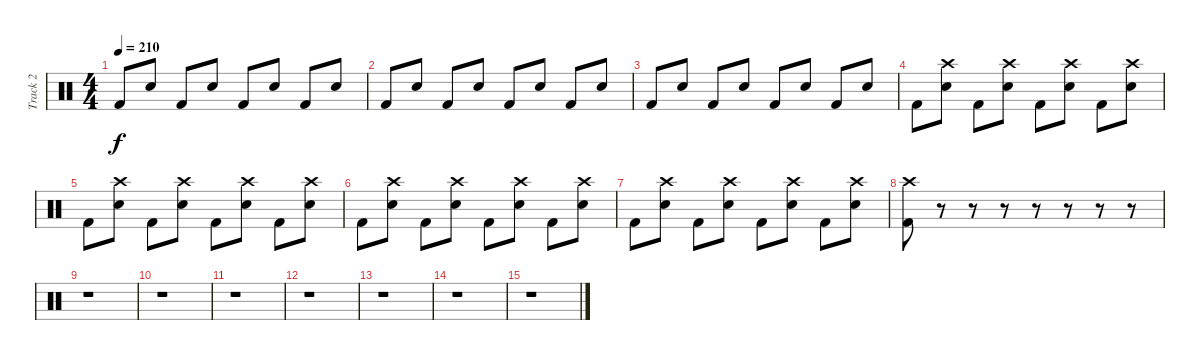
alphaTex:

\track ("Track 2" "Track 2") {instrument percussion}
\staff {score}
\articulation defaults
\ts (4 4)
\tempo 210
\clef neutral
\ks c "Kick (hit) 2".8{dy f} "Electric Snare (hit)".8 "Kick (hit) 2".8 "Electric Snare (hit)".8 "Kick (hit) 2".8 "Electric Snare (hit)".8 "Kick (hit) 2".8 "Electric Snare (hit)".8
|
"Kick (hit) 2".8 "Electric Snare (hit)".8 "Kick (hit) 2".8 "Electric Snare (hit)".8 "Kick (hit) 2".8 "Electric Snare (hit)".8 "Kick (hit) 2".8 "Electric Snare (hit)".8 |
"Kick (hit) 2".8 "Electric Snare (hit)".8 "Kick (hit) 2".8 "Electric Snare (hit)".8 "Kick (hit) 2".8 "Electric Snare (hit)".8 "Kick (hit) 2".8 "Electric Snare (hit)".8 |
"Kick (hit) 2".8 ("Crash high (hit)" "Electric Snare (hit)").8 "Kick (hit) 2".8 ("Crash high (hit)" "Electric Snare (hit)").8 "Kick (hit) 2".8 ("Crash high (hit)" "Electric Snare (hit)").8 "Kick (hit) 2".8 ("Crash high (hit)" "Electric Snare (hit)").8 |
"Kick (hit) 2".8 ("Crash high (hit)" "Electric Snare (hit)").8 "Kick (hit) 2".8 ("Crash high (hit)" "Electric Snare (hit)").8 "Kick (hit) 2".8 ("Crash high (hit)" "Electric Snare (hit)").8 "Kick (hit) 2".8 ("Crash high (hit)" "Electric Snare (hit)").8 |
"Kick (hit) 2".8 ("Crash high (hit)" "Electric Snare (hit)").8 "Kick (hit) 2".8 ("Crash high (hit)" "Electric Snare (hit)").8 "Kick (hit) 2".8 ("Crash high (hit)" "Electric Snare (hit)").8 "Kick (hit) 2".8 ("Crash high (hit)" "Electric Snare (hit)").8 |
"Kick (hit) 2".8 ("Crash high (hit)" "Electric Snare (hit)").8 "Kick (hit) 2".8 ("Crash high (hit)" "Electric Snare (hit)").8 "Kick (hit) 2".8 ("Crash high (hit)" "Electric Snare (hit)").8 "Kick (hit) 2".8 ("Crash high (hit)" "Electric Snare (hit)").8 |
("Crash high (hit)" "Kick (hit) 2").8 r.8 r.8 r.8 r.8 r.8 r.8 r.8 |
r.1 |
r.1 |
r.1 |
r.1 |
r.1 |
r.1 |
r.1
